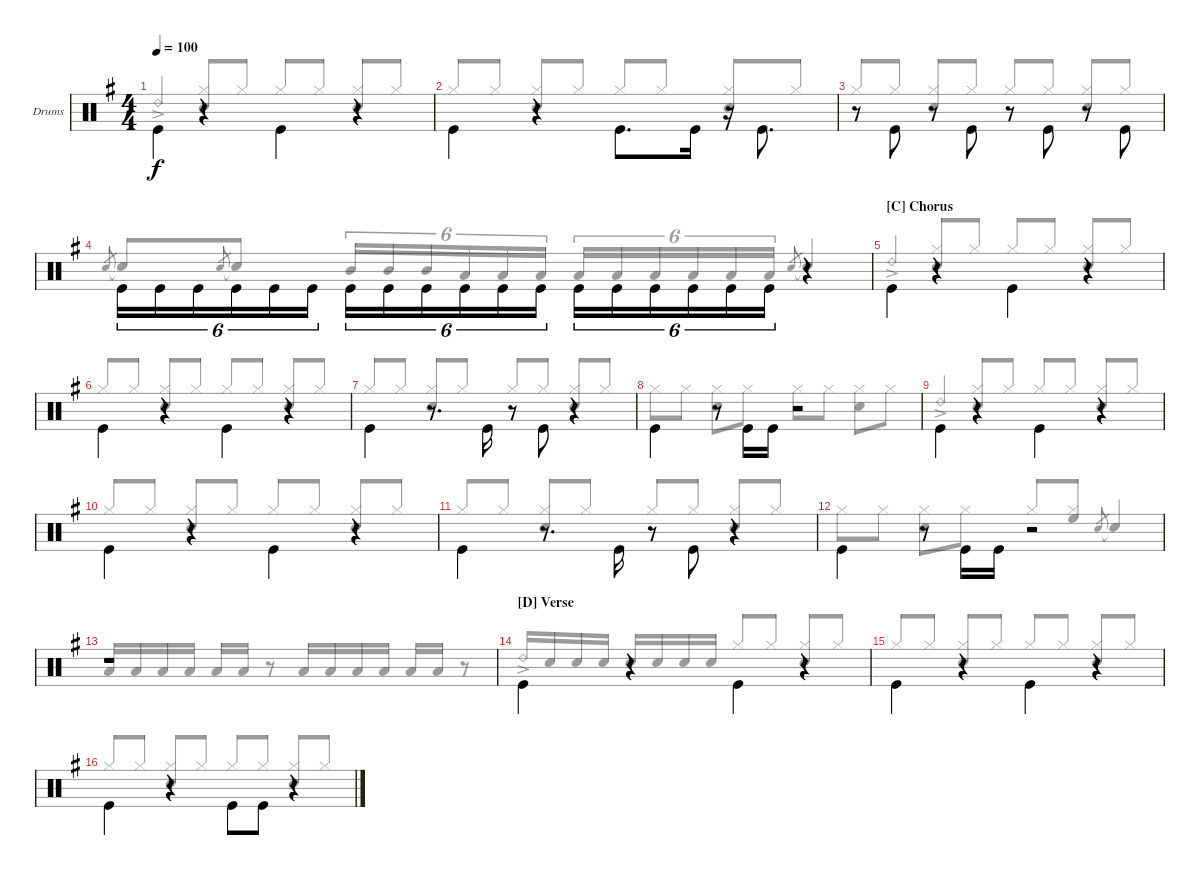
\defaultSystemsLayout 4
\bracketExtendMode groupsimilarinstruments
\firstSystemTrackNameOrientation horizontal
\otherSystemsTrackNameOrientation horizontal
\track ("Drumkit" "Drums") {instrument percussion}
\staff {score}
\articulation defaults
\voice
\ts (4 4)
\tempo 100
\clef neutral
\scale
1.02648
\ks g "Kick (hit)".4{dy f beam invert}
r.4{beam invert} "Kick (hit)".4{beam invert} r.4{beam invert} |
\scale
0.973518 "Kick (hit)".4{beam invert} r.4 "Kick (hit)".8{d beam invert} "Kick (hit)".16 r.16{beam invert} "Kick (hit)".8{d beam invert} |
\scale
1.02648 r.8 "Kick (hit)".8{beam invert} r.8 "Kick (hit)".8{beam invert} r.8 "Kick (hit)".8{beam invert} r.8 "Kick (hit)".8{beam invert} |
\scale
0.973518 "Kick (hit)".16{tu (6 4) beam invert} "Kick (hit)".16{tu (6 4)} "Kick (hit)".16{tu (6 4)} "Kick (hit)".16{tu (6 4)} "Kick (hit)".16{tu (6 4)} "Kick (hit)".16{tu (6 4)} "Kick (hit)".16{tu (6 4) beam invert} "Kick (hit)".16{tu (6 4)} "Kick (hit)".16{tu (6 4)} "Kick (hit)".16{tu (6 4)} "Kick (hit)".16{tu (6 4)} "Kick (hit)".16{tu (6 4)} "Kick (hit)".16{tu (6 4) beam invert} "Kick (hit)".16{tu (6 4)} "Kick (hit)".16{tu (6 4)} "Kick (hit)".16{tu (6 4)} "Kick (hit)".16{tu (6 4)} "Kick (hit)".16{tu (6 4)} r.4{beam invert} |
\section ("C" "Chorus")
\scale
1.02648 "Kick (hit)".4{beam invert} r.4{beam invert} "Kick (hit)".4{beam invert} r.4{beam invert} |
\scale
0.973518 "Kick (hit)".4{beam invert} r.4{beam invert} "Kick (hit)".4{beam invert} r.4{beam invert} |
\scale
1.02648 "Kick (hit)".4{beam invert} r.8{d beam invert} "Kick (hit)".16{beam invert} r.8{beam invert} "Kick (hit)".8{beam invert} r.4{beam invert} |
\scale
0.973518 "Kick (hit)".4{beam invert} r.8 "Kick (hit)".16{beam invert} "Kick (hit)".16 r.2{beam invert} |
\scale
1.02648 "Kick (hit)".4{beam invert} r.4{beam invert} "Kick (hit)".4{beam invert} r.4{beam invert} |
\scale
0.973518 "Kick (hit)".4{beam invert} r.4{beam invert} "Kick (hit)".4{beam invert} r.4{beam invert} |
\scale
1.02648 "Kick (hit)".4{beam invert} r.8{d beam invert} "Kick (hit)".16{beam invert} r.8{beam invert} "Kick (hit)".8{beam invert} r.4{beam invert} |
\scale
0.973518 "Kick (hit)".4{beam invert} r.8 "Kick (hit)".16{beam invert} "Kick (hit)".16 r.2{beam invert} |
\scale
1.02648 r.1 |
\section ("D" "Verse")
\scale
0.973518 "Kick (hit)".4{beam invert} r.4{beam invert} "Kick (hit)".4{beam invert} r.4{beam invert} |
\scale
1.02648 "Kick (hit)".4{beam invert} r.4{beam invert} "Kick (hit)".4{beam invert} r.4{beam invert} |
\scale
0.973518 "Kick (hit)".4{beam invert} r.4 "Kick (hit)".8{beam invert} "Kick (hit)".8 r.4{beam invert}
\voice
\clef neutral
\ottava regular
\simile none
\scale
1.02648
\ks g "Ride (bell) 2"{ac}.4{dy f beam invert}
("Hi-Hat (closed)" "Snare (hit) 2").8{beam invert} "Hi-Hat (closed)".8 "Hi-Hat (closed)".8{beam invert} "Hi-Hat (closed)".8 ("Hi-Hat (closed)" "Snare (hit) 2").8{beam invert} "Hi-Hat (closed)".8 |
\scale
0.973518 "Hi-Hat (closed)".8{beam invert} "Hi-Hat (closed)".8 ("Hi-Hat (closed)" "Snare (hit) 2").8 "Hi-Hat (closed)".8{beam invert} "Hi-Hat (closed)".8 "Hi-Hat (closed)".8{beam invert} ("Hi-Hat (closed)" "Snare (hit) 2").8 "Hi-Hat (closed)".8{beam invert} |
\scale
1.02648 "Hi-Hat (closed)".8{beam invert} "Hi-Hat (closed)".8 ("Hi-Hat (closed)" "Snare (hit) 2").8 "Hi-Hat (closed)".8{beam invert} "Hi-Hat (closed)".8 "Hi-Hat (closed)".8{beam invert} ("Hi-Hat (closed)" "Snare (hit) 2").8 "Hi-Hat (closed)".8{beam invert} |
\scale
0.973518 "Snare (hit) 2".8{gr beam invert} "Snare (hit) 2"{t}.8{beam invert} "Snare (hit) 2".8{gr beam invert} "Snare (hit) 2"{t}.8{beam invert} "Mid Tom (hit)".16{tu (6 4) beam invert} "Mid Tom (hit)".16{tu (6 4)} "Mid Tom (hit)".16{tu (6 4)} "Low Tom (hit)".16{tu (6 4)} "Low Tom (hit)".16{tu (6 4)} "Low Tom (hit)".16{tu (6 4)} "Low Tom (hit)".16{tu (6 4) beam invert} "Low Tom (hit)".16{tu (6 4)} "Low Tom (hit)".16{tu (6 4)} "Low Tom (hit)".16{tu (6 4)} "Low Tom (hit)".16{tu (6 4)} "Low Tom (hit)".16{tu (6 4)} "Snare (hit) 2".8{gr beam invert} "Snare (hit) 2"{t}.4{beam invert} |
\scale
1.02648 "Ride (bell) 2"{ac}.4{beam invert} ("Hi-Hat (closed)" "Snare (hit) 2").8{beam invert} "Hi-Hat (closed)".8 "Hi-Hat (closed)".8{beam invert} "Hi-Hat (closed)".8 ("Hi-Hat (closed)" "Snare (hit) 2").8{beam invert} "Hi-Hat (closed)".8 |
\scale
0.973518 "Hi-Hat (closed)".8{beam invert} "Hi-Hat (closed)".8 ("Hi-Hat (closed)" "Snare (hit) 2").8 "Hi-Hat (closed)".8{beam invert} "Hi-Hat (closed)".8 "Hi-Hat (closed)".8{beam invert} ("Hi-Hat (closed)" "Snare (hit) 2").8 "Hi-Hat (closed)".8{beam invert} |
\scale
1.02648 "Hi-Hat (closed)".8{beam invert} "Hi-Hat (closed)".8 ("Hi-Hat (closed)" "Snare (hit) 2").8 "Hi-Hat (closed)".8{beam invert} "Hi-Hat (closed)".8 "Hi-Hat (closed)".8{beam invert} ("Hi-Hat (closed)" "Snare (hit) 2").8 "Hi-Hat (closed)".8{beam invert} |
\scale
0.973518 "Hi-Hat (closed)".8 "Hi-Hat (closed)".8 ("Hi-Hat (closed)" "Snare (hit) 2").8 "Hi-Hat (closed)".8 "Hi-Hat (closed)".8 "Hi-Hat (closed)".8 ("Hi-Hat (closed)" "Snare (hit) 2").8 "Hi-Hat (closed)".8 |
\scale
1.02648 "Ride (bell) 2"{ac}.4{beam invert} ("Hi-Hat (closed)" "Snare (hit) 2").8{beam invert} "Hi-Hat (closed)".8 "Hi-Hat (closed)".8{beam invert} "Hi-Hat (closed)".8 ("Hi-Hat (closed)" "Snare (hit) 2").8{beam invert} "Hi-Hat (closed)".8 |
\scale
0.973518 "Hi-Hat (closed)".8{beam invert} "Hi-Hat (closed)".8 ("Hi-Hat (closed)" "Snare (hit) 2").8 "Hi-Hat (closed)".8{beam invert} "Hi-Hat (closed)".8 "Hi-Hat (closed)".8{beam invert} ("Hi-Hat (closed)" "Snare (hit) 2").8 "Hi-Hat (closed)".8{beam invert} |
\scale
1.02648 "Hi-Hat (closed)".8{beam invert} "Hi-Hat (closed)".8 ("Hi-Hat (closed)" "Snare (hit) 2").8 "Hi-Hat (closed)".8{beam invert} "Hi-Hat (closed)".8 "Hi-Hat (closed)".8{beam invert} ("Hi-Hat (closed)" "Snare (hit) 2").8 "Hi-Hat (closed)".8{beam invert} |
\scale
0.973518 "Hi-Hat (closed)".8 "Hi-Hat (closed)".8 ("Hi-Hat (closed)" "Snare (hit) 2").8 "Hi-Hat (closed)".8 "Hi-Hat (closed)".8 ("Hi-Hat (closed)" "High Floor Tom (hit)").8 "Snare (hit) 2".8{gr beam invert} "Snare (hit) 2"{t}.4{beam invert} |
\scale
1.02648 "Low Tom (hit)".16{beam invert} "Low Tom (hit)".16 "Low Tom (hit)".16 "Low Tom (hit)".16 "Low Tom (hit)".16{beam invert} "Low Tom (hit)".16 r.8 "Low Tom (hit)".16{beam invert} "Low Tom (hit)".16 "Low Tom (hit)".16 "Low Tom (hit)".16 "Low Tom (hit)".16{beam invert} "Low Tom (hit)".16 r.8 |
\scale
0.973518 "Ride (bell) 2"{ac}.16{beam invert} "Snare (hit) 2".16 "Snare (hit) 2".16 "Snare (hit) 2".16 "Snare (hit) 2".16{beam invert} "Snare (hit) 2".16 "Snare (hit) 2".16 "Snare (hit) 2".16 "Hi-Hat (closed)".8 "Hi-Hat (closed)".8{beam invert} ("Hi-Hat (closed)" "Snare (hit) 2").8 "Hi-Hat (closed)".8{beam invert} |
\scale
1.02648 "Hi-Hat (closed)".8{beam invert} "Hi-Hat (closed)".8 ("Hi-Hat (closed)" "Snare (hit) 2").8{beam invert} "Hi-Hat (closed)".8 "Hi-Hat (closed)".8{beam invert} "Hi-Hat (closed)".8 ("Hi-Hat (closed)" "Snare (hit) 2").8{beam invert} "Hi-Hat (closed)".8 |
\scale
0.973518 "Hi-Hat (closed)".8{beam invert} "Hi-Hat (closed)".8 ("Hi-Hat (closed)" "Snare (hit) 2").8{beam invert} "Hi-Hat (closed)".8 "Hi-Hat (closed)".8{beam invert} "Hi-Hat (closed)".8 ("Hi-Hat (closed)" "Snare (hit) 2").8{beam invert} "Hi-Hat (closed)".8
